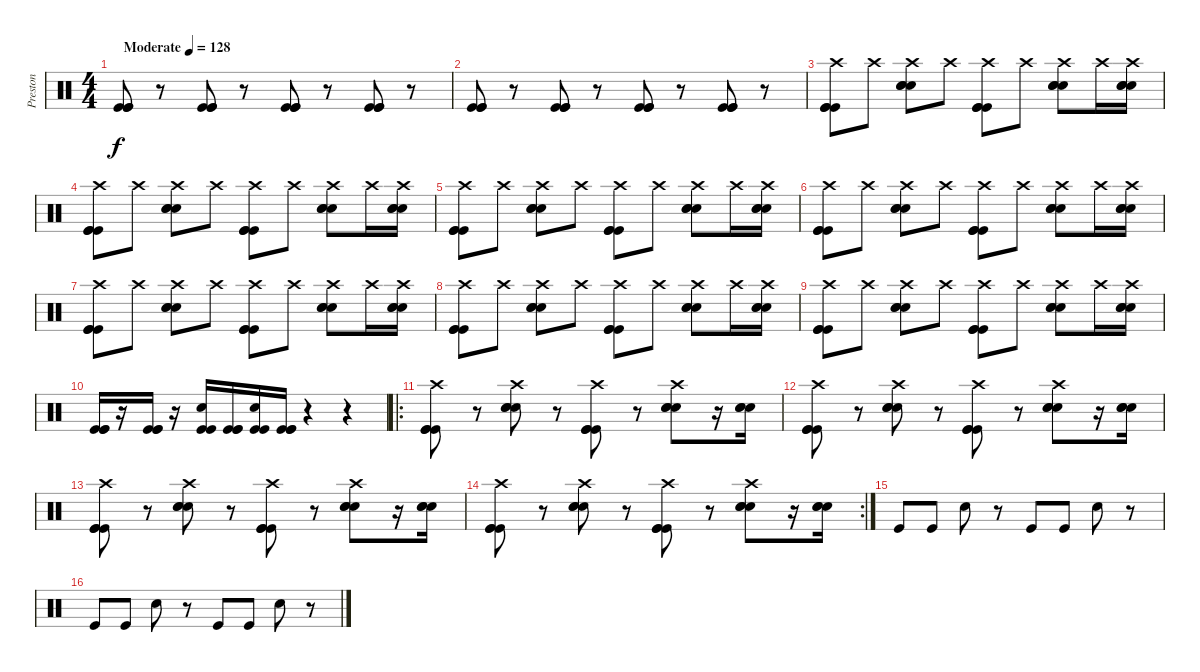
\track ("Preston" "Preston") {instrument percussion}
\staff {score}
\articulation defaults
\ts (4 4)
\tempo (128 "Moderate")
\clef neutral
\ks c
("Kick (hit)" "Kick (hit)" "Kick (hit)").8{dy f} r.8 ("Kick (hit)" "Kick (hit)" "Kick (hit)").8 r.8 ("Kick (hit)" "Kick (hit)" "Kick (hit)").8 r.8 ("Kick (hit)" "Kick (hit)" "Kick (hit)").8 r.8 |
("Kick (hit)" "Kick (hit)" "Kick (hit)").8 r.8 ("Kick (hit)" "Kick (hit)" "Kick (hit)").8 r.8 ("Kick (hit)" "Kick (hit)" "Kick (hit)").8 r.8 ("Kick (hit)" "Kick (hit)" "Kick (hit)").8 r.8 |
("Crash high (hit)" "Kick (hit)" "Kick (hit)" "Kick (hit)").8 "Crash high (hit)".8 ("Crash high (hit)" "Electric Snare (hit)" "Electric Snare (hit)" "Electric Snare (hit)").8 "Crash high (hit)".8 ("Crash high (hit)" "Kick (hit)" "Kick (hit)" "Kick (hit)").8 "Crash high (hit)".8 ("Crash high (hit)" "Electric Snare (hit)" "Electric Snare (hit)" "Electric Snare (hit)").8 "Crash high (hit)".16 ("Crash high (hit)" "Electric Snare (hit)" "Electric Snare (hit)" "Electric Snare (hit)").16 |
("Crash high (hit)" "Kick (hit)" "Kick (hit)" "Kick (hit)").8 "Crash high (hit)".8 ("Crash high (hit)" "Electric Snare (hit)" "Electric Snare (hit)" "Electric Snare (hit)").8 "Crash high (hit)".8 ("Crash high (hit)" "Kick (hit)" "Kick (hit)" "Kick (hit)").8 "Crash high (hit)".8 ("Crash high (hit)" "Electric Snare (hit)" "Electric Snare (hit)" "Electric Snare (hit)").8 "Crash high (hit)".16 ("Crash high (hit)" "Electric Snare (hit)" "Electric Snare (hit)" "Electric Snare (hit)").16 |
("Crash high (hit)" "Kick (hit)" "Kick (hit)" "Kick (hit)").8 "Crash high (hit)".8 ("Crash high (hit)" "Electric Snare (hit)" "Electric Snare (hit)" "Electric Snare (hit)").8 "Crash high (hit)".8 ("Crash high (hit)" "Kick (hit)" "Kick (hit)" "Kick (hit)").8 "Crash high (hit)".8 ("Crash high (hit)" "Electric Snare (hit)" "Electric Snare (hit)" "Electric Snare (hit)").8 "Crash high (hit)".16 ("Crash high (hit)" "Electric Snare (hit)" "Electric Snare (hit)" "Electric Snare (hit)").16 |
("Crash high (hit)" "Kick (hit)" "Kick (hit)" "Kick (hit)").8 "Crash high (hit)".8 ("Crash high (hit)" "Electric Snare (hit)" "Electric Snare (hit)" "Electric Snare (hit)").8 "Crash high (hit)".8 ("Crash high (hit)" "Kick (hit)" "Kick (hit)" "Kick (hit)").8 "Crash high (hit)".8 ("Crash high (hit)" "Electric Snare (hit)" "Electric Snare (hit)" "Electric Snare (hit)").8 "Crash high (hit)".16 ("Crash high (hit)" "Electric Snare (hit)" "Electric Snare (hit)" "Electric Snare (hit)").16 |
("Crash high (hit)" "Kick (hit)" "Kick (hit)" "Kick (hit)").8 "Crash high (hit)".8 ("Crash high (hit)" "Electric Snare (hit)" "Electric Snare (hit)" "Electric Snare (hit)").8 "Crash high (hit)".8 ("Crash high (hit)" "Kick (hit)" "Kick (hit)" "Kick (hit)").8 "Crash high (hit)".8 ("Crash high (hit)" "Electric Snare (hit)" "Electric Snare (hit)" "Electric Snare (hit)").8 "Crash high (hit)".16 ("Crash high (hit)" "Electric Snare (hit)" "Electric Snare (hit)" "Electric Snare (hit)").16 |
("Crash high (hit)" "Kick (hit)" "Kick (hit)" "Kick (hit)").8 "Crash high (hit)".8 ("Crash high (hit)" "Electric Snare (hit)" "Electric Snare (hit)" "Electric Snare (hit)").8 "Crash high (hit)".8 ("Crash high (hit)" "Kick (hit)" "Kick (hit)" "Kick (hit)").8 "Crash high (hit)".8 ("Crash high (hit)" "Electric Snare (hit)" "Electric Snare (hit)" "Electric Snare (hit)").8 "Crash high (hit)".16 ("Crash high (hit)" "Electric Snare (hit)" "Electric Snare (hit)" "Electric Snare (hit)").16 |
("Crash high (hit)" "Kick (hit)" "Kick (hit)" "Kick (hit)").8 "Crash high (hit)".8 ("Crash high (hit)" "Electric Snare (hit)" "Electric Snare (hit)" "Electric Snare (hit)").8 "Crash high (hit)".8 ("Crash high (hit)" "Kick (hit)" "Kick (hit)" "Kick (hit)").8 "Crash high (hit)".8 ("Crash high (hit)" "Electric Snare (hit)" "Electric Snare (hit)" "Electric Snare (hit)").8 "Crash high (hit)".16 ("Crash high (hit)" "Electric Snare (hit)" "Electric Snare (hit)" "Electric Snare (hit)").16 |
("Kick (hit)" "Kick (hit)" "Kick (hit)").16 r.16 ("Kick (hit)" "Kick (hit)" "Kick (hit)").16 r.16 ("Kick (hit)" "Kick (hit)" "Electric Snare (hit)").16 ("Kick (hit)" "Kick (hit)" "Kick (hit)").16 ("Kick (hit)" "Kick (hit)" "Electric Snare (hit)").16 ("Kick (hit)" "Kick (hit)" "Kick (hit)").16 r.4 r.4 |
\ro
("Crash high (hit)" "Kick (hit)" "Kick (hit)" "Kick (hit)").8 r.8 ("Crash high (hit)" "Electric Snare (hit)" "Electric Snare (hit)" "Electric Snare (hit)").8 r.8 ("Crash high (hit)" "Kick (hit)" "Kick (hit)" "Kick (hit)").8 r.8 ("Crash high (hit)" "Electric Snare (hit)" "Electric Snare (hit)" "Electric Snare (hit)").8 r.16 ("Electric Snare (hit)" "Electric Snare (hit)" "Electric Snare (hit)").16 |
("Crash high (hit)" "Kick (hit)" "Kick (hit)" "Kick (hit)").8 r.8 ("Crash high (hit)" "Electric Snare (hit)" "Electric Snare (hit)" "Electric Snare (hit)").8 r.8 ("Crash high (hit)" "Kick (hit)" "Kick (hit)" "Kick (hit)").8 r.8 ("Crash high (hit)" "Electric Snare (hit)" "Electric Snare (hit)" "Electric Snare (hit)").8 r.16 ("Electric Snare (hit)" "Electric Snare (hit)" "Electric Snare (hit)").16 |
("Crash high (hit)" "Kick (hit)" "Kick (hit)" "Kick (hit)").8 r.8 ("Crash high (hit)" "Electric Snare (hit)" "Electric Snare (hit)" "Electric Snare (hit)").8 r.8 ("Crash high (hit)" "Kick (hit)" "Kick (hit)" "Kick (hit)").8 r.8 ("Crash high (hit)" "Electric Snare (hit)" "Electric Snare (hit)" "Electric Snare (hit)").8 r.16 ("Electric Snare (hit)" "Electric Snare (hit)" "Electric Snare (hit)").16 |
\rc 2
("Crash high (hit)" "Kick (hit)" "Kick (hit)" "Kick (hit)").8 r.8 ("Crash high (hit)" "Electric Snare (hit)" "Electric Snare (hit)" "Electric Snare (hit)").8 r.8 ("Crash high (hit)" "Kick (hit)" "Kick (hit)" "Kick (hit)").8 r.8 ("Crash high (hit)" "Electric Snare (hit)" "Electric Snare (hit)" "Electric Snare (hit)").8 r.16 ("Electric Snare (hit)" "Electric Snare (hit)" "Electric Snare (hit)").16 |
"Kick (hit)".8 "Kick (hit)".8 "Electric Snare (hit)".8 r.8 "Kick (hit)".8 "Kick (hit)".8 "Electric Snare (hit)".8 r.8 |
"Kick (hit)".8 "Kick (hit)".8 "Electric Snare (hit)".8 r.8 "Kick (hit)".8 "Kick (hit)".8 "Electric Snare (hit)".8 r.8
